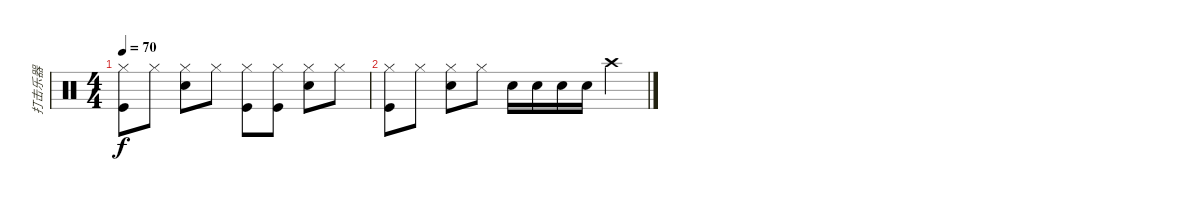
\track ("打击乐器" "打击乐器") {instrument percussion}
\staff {score}
\articulation defaults
\ts (4 4)
\tempo 70
\clef neutral
\ks c
("Hi-Hat (closed)" "Kick (hit)").8{dy f} "Hi-Hat (closed)".8 ("Hi-Hat (closed)" "Electric Snare (hit)").8 "Hi-Hat (closed)".8 ("Hi-Hat (closed)" "Kick (hit)").8 ("Hi-Hat (closed)" "Kick (hit)").8 ("Hi-Hat (closed)" "Electric Snare (hit)").8 "Hi-Hat (closed)".8 |
("Hi-Hat (closed)" "Kick (hit)").8 "Hi-Hat (closed)".8 ("Hi-Hat (closed)" "Electric Snare (hit)").8 "Hi-Hat (closed)".8 "Electric Snare (hit)".16 "Electric Snare (hit)".16 "Electric Snare (hit)".16 "Electric Snare (hit)".16 "Crash high (hit)".4
